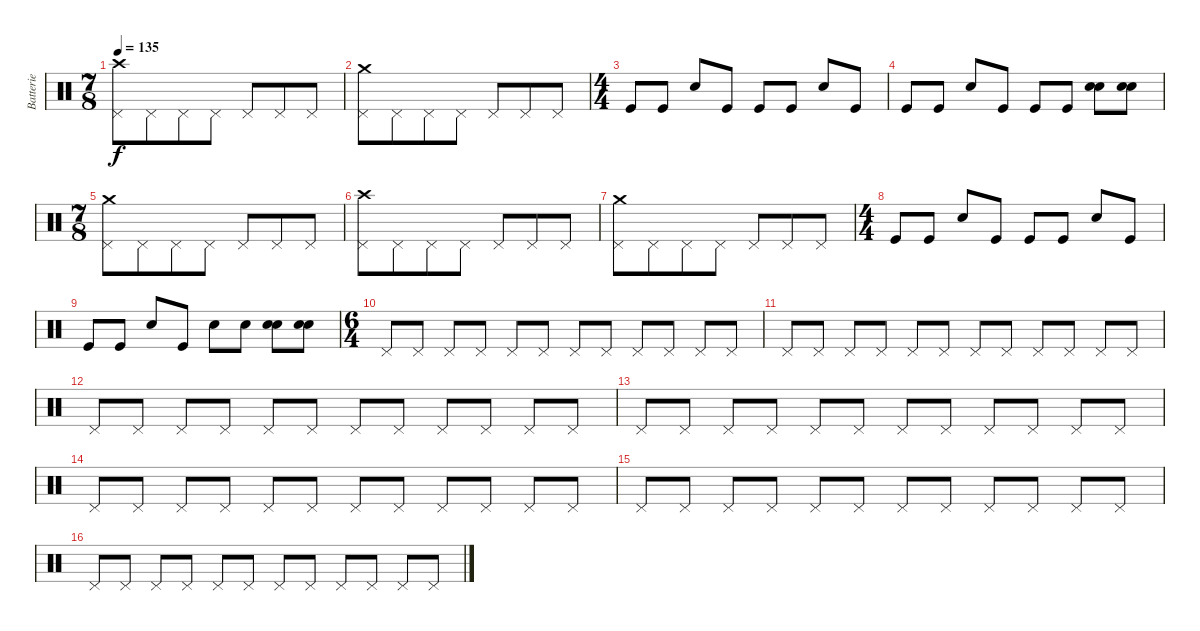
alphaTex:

\track ("Batterie" "Batterie") {instrument percussion}
\staff {score}
\articulation defaults
\ts (7 8)
\tempo 135
\clef neutral
\ks c
("Pedal Hi-Hat (hit)" "Crash high (hit)").8{dy f} "Pedal Hi-Hat (hit)".8 "Pedal Hi-Hat (hit)".8 "Pedal Hi-Hat (hit)".8 "Pedal Hi-Hat (hit)".8 "Pedal Hi-Hat (hit)".8 "Pedal Hi-Hat (hit)".8 |
("Pedal Hi-Hat (hit)" "Crash medium (hit)").8 "Pedal Hi-Hat (hit)".8 "Pedal Hi-Hat (hit)".8 "Pedal Hi-Hat (hit)".8 "Pedal Hi-Hat (hit)".8 "Pedal Hi-Hat (hit)".8 "Pedal Hi-Hat (hit)".8 |
\ts (4 4)
"Kick (hit)".8 "Kick (hit)".8 "Snare (hit) 2".8 "Kick (hit)".8 "Kick (hit)".8 "Kick (hit)".8 "Snare (hit) 2".8 "Kick (hit)".8 |
"Kick (hit)".8 "Kick (hit)".8 "Snare (hit) 2".8 "Kick (hit)".8 "Kick (hit)".8 "Kick (hit)".8 ("Snare (hit) 2" "Electric Snare (hit)").8 ("Snare (hit) 2" "Electric Snare (hit)").8 |
\ts (7 8)
("Pedal Hi-Hat (hit)" "Crash medium (hit)").8 "Pedal Hi-Hat (hit)".8 "Pedal Hi-Hat (hit)".8 "Pedal Hi-Hat (hit)".8 "Pedal Hi-Hat (hit)".8 "Pedal Hi-Hat (hit)".8 "Pedal Hi-Hat (hit)".8 |
("Pedal Hi-Hat (hit)" "Crash high (hit)").8 "Pedal Hi-Hat (hit)".8 "Pedal Hi-Hat (hit)".8 "Pedal Hi-Hat (hit)".8 "Pedal Hi-Hat (hit)".8 "Pedal Hi-Hat (hit)".8 "Pedal Hi-Hat (hit)".8 |
("Pedal Hi-Hat (hit)" "Crash medium (hit)").8 "Pedal Hi-Hat (hit)".8 "Pedal Hi-Hat (hit)".8 "Pedal Hi-Hat (hit)".8 "Pedal Hi-Hat (hit)".8 "Pedal Hi-Hat (hit)".8 "Pedal Hi-Hat (hit)".8 |
\ts (4 4)
"Kick (hit)".8 "Kick (hit)".8 "Snare (hit) 2".8 "Kick (hit)".8 "Kick (hit)".8 "Kick (hit)".8 "Snare (hit) 2".8 "Kick (hit)".8 |
"Kick (hit)".8 "Kick (hit)".8 "Snare (hit) 2".8 "Kick (hit)".8 "Electric Snare (hit)".8 "Electric Snare (hit)".8 ("Snare (hit) 2" "Electric Snare (hit)").8 ("Snare (hit) 2" "Electric Snare (hit)").8 |
\ts (6 4)
"Pedal Hi-Hat (hit)".8 "Pedal Hi-Hat (hit)".8 "Pedal Hi-Hat (hit)".8 "Pedal Hi-Hat (hit)".8 "Pedal Hi-Hat (hit)".8 "Pedal Hi-Hat (hit)".8 "Pedal Hi-Hat (hit)".8 "Pedal Hi-Hat (hit)".8 "Pedal Hi-Hat (hit)".8 "Pedal Hi-Hat (hit)".8 "Pedal Hi-Hat (hit)".8 "Pedal Hi-Hat (hit)".8 |
"Pedal Hi-Hat (hit)".8 "Pedal Hi-Hat (hit)".8 "Pedal Hi-Hat (hit)".8 "Pedal Hi-Hat (hit)".8 "Pedal Hi-Hat (hit)".8 "Pedal Hi-Hat (hit)".8 "Pedal Hi-Hat (hit)".8 "Pedal Hi-Hat (hit)".8 "Pedal Hi-Hat (hit)".8 "Pedal Hi-Hat (hit)".8 "Pedal Hi-Hat (hit)".8 "Pedal Hi-Hat (hit)".8 |
"Pedal Hi-Hat (hit)".8 "Pedal Hi-Hat (hit)".8 "Pedal Hi-Hat (hit)".8 "Pedal Hi-Hat (hit)".8 "Pedal Hi-Hat (hit)".8 "Pedal Hi-Hat (hit)".8 "Pedal Hi-Hat (hit)".8 "Pedal Hi-Hat (hit)".8 "Pedal Hi-Hat (hit)".8 "Pedal Hi-Hat (hit)".8 "Pedal Hi-Hat (hit)".8 "Pedal Hi-Hat (hit)".8 |
"Pedal Hi-Hat (hit)".8 "Pedal Hi-Hat (hit)".8 "Pedal Hi-Hat (hit)".8 "Pedal Hi-Hat (hit)".8 "Pedal Hi-Hat (hit)".8 "Pedal Hi-Hat (hit)".8 "Pedal Hi-Hat (hit)".8 "Pedal Hi-Hat (hit)".8 "Pedal Hi-Hat (hit)".8 "Pedal Hi-Hat (hit)".8 "Pedal Hi-Hat (hit)".8 "Pedal Hi-Hat (hit)".8 |
"Pedal Hi-Hat (hit)".8 "Pedal Hi-Hat (hit)".8 "Pedal Hi-Hat (hit)".8 "Pedal Hi-Hat (hit)".8 "Pedal Hi-Hat (hit)".8 "Pedal Hi-Hat (hit)".8 "Pedal Hi-Hat (hit)".8 "Pedal Hi-Hat (hit)".8 "Pedal Hi-Hat (hit)".8 "Pedal Hi-Hat (hit)".8 "Pedal Hi-Hat (hit)".8 "Pedal Hi-Hat (hit)".8 |
"Pedal Hi-Hat (hit)".8 "Pedal Hi-Hat (hit)".8 "Pedal Hi-Hat (hit)".8 "Pedal Hi-Hat (hit)".8 "Pedal Hi-Hat (hit)".8 "Pedal Hi-Hat (hit)".8 "Pedal Hi-Hat (hit)".8 "Pedal Hi-Hat (hit)".8 "Pedal Hi-Hat (hit)".8 "Pedal Hi-Hat (hit)".8 "Pedal Hi-Hat (hit)".8 "Pedal Hi-Hat (hit)".8 |
"Pedal Hi-Hat (hit)".8 "Pedal Hi-Hat (hit)".8 "Pedal Hi-Hat (hit)".8 "Pedal Hi-Hat (hit)".8 "Pedal Hi-Hat (hit)".8 "Pedal Hi-Hat (hit)".8 "Pedal Hi-Hat (hit)".8 "Pedal Hi-Hat (hit)".8 "Pedal Hi-Hat (hit)".8 "Pedal Hi-Hat (hit)".8 "Pedal Hi-Hat (hit)".8 "Pedal Hi-Hat (hit)".8
